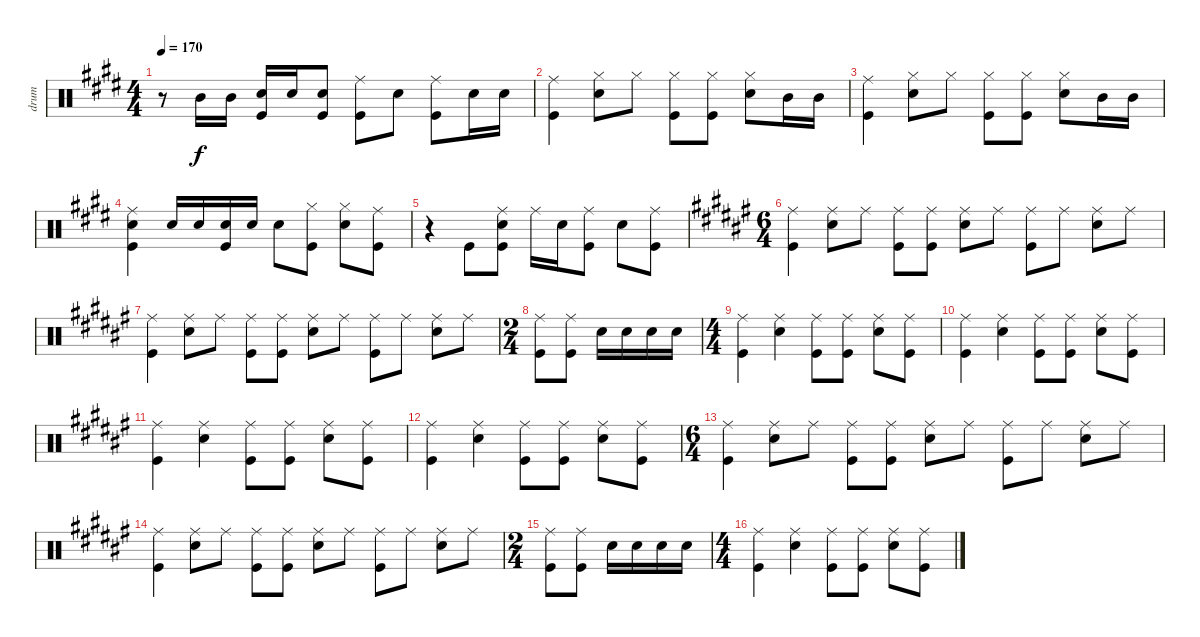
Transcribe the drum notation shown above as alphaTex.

\track ("drum" "drum") {instrument percussion}
\staff {score}
\articulation defaults
\ts (4 4)
\tempo 170
\clef neutral
\ks e
r.8{dy f} "Mid Tom (hit)".16 "Mid Tom (hit)".16 ("Snare (hit) 2" "Kick (hit)").16 "Snare (hit) 2".16 ("Snare (hit) 2" "Kick (hit)").8 ("Ride (middle)" "Kick (hit)").8 "Snare (hit) 2".8 ("Ride (middle)" "Kick (hit)").8 "Snare (hit) 2".16 "Snare (hit) 2".16 |
("Ride (middle)" "Kick (hit)").4 ("Snare (hit) 2" "Hi-Hat (closed)").8 "Hi-Hat (closed)".8 ("Hi-Hat (closed)" "Kick (hit)").8 ("Hi-Hat (closed)" "Kick (hit)").8 ("Hi-Hat (closed)" "Snare (hit) 2").8 "Mid Tom (hit)".16 "Mid Tom (hit)".16 |
("Ride (middle)" "Kick (hit)").4 ("Snare (hit) 2" "Hi-Hat (closed)").8 "Hi-Hat (closed)".8 ("Hi-Hat (closed)" "Kick (hit)").8 ("Hi-Hat (closed)" "Kick (hit)").8 ("Hi-Hat (closed)" "Snare (hit) 2").8 "Mid Tom (hit)".16 "Mid Tom (hit)".16 |
("Ride (middle)" "Snare (hit) 2" "Kick (hit)").4 "Snare (hit) 2".16 "Snare (hit) 2".16 ("Snare (hit) 2" "Kick (hit)").16 "Snare (hit) 2".16 "Snare (hit) 2".8 ("Hi-Hat (closed)" "Kick (hit)").8 ("Hi-Hat (closed)" "Snare (hit) 2").8 ("Ride (middle)" "Kick (hit)").8 |
r.4 "Kick (hit)".8 ("Kick (hit)" "Snare (hit) 2" "Ride (middle)").8 "Ride (middle)".16 "Snare (hit) 2".16 ("Kick (hit)" "Ride (middle)").8 "Snare (hit) 2".8 ("Kick (hit)" "Ride (middle)").8 |
\ts (6 4)
\ks f#
("Kick (hit)" "Ride (middle)").4 ("Snare (hit) 2" "Ride (middle)").8 "Ride (middle)".8 ("Kick (hit)" "Ride (middle)").8 ("Kick (hit)" "Ride (middle)").8 ("Snare (hit) 2" "Ride (middle)").8 "Ride (middle)".8 ("Kick (hit)" "Ride (middle)").8 "Ride (middle)".8 ("Snare (hit) 2" "Ride (middle)").8 "Ride (middle)".8 |
("Kick (hit)" "Ride (middle)").4 ("Snare (hit) 2" "Ride (middle)").8 "Ride (middle)".8 ("Kick (hit)" "Ride (middle)").8 ("Kick (hit)" "Ride (middle)").8 ("Snare (hit) 2" "Ride (middle)").8 "Ride (middle)".8 ("Kick (hit)" "Ride (middle)").8 "Ride (middle)".8 ("Snare (hit) 2" "Ride (middle)").8 "Ride (middle)".8 |
\ts (2 4)
("Kick (hit)" "Ride (middle)").8 ("Kick (hit)" "Ride (middle)").8 "Snare (hit) 2".16 "Snare (hit) 2".16 "Snare (hit) 2".16 "Snare (hit) 2".16 |
\ts (4 4)
("Ride (middle)" "Kick (hit)").4 ("Ride (middle)" "Snare (hit) 2").4 ("Kick (hit)" "Ride (middle)").8 ("Kick (hit)" "Ride (middle)").8 ("Snare (hit) 2" "Ride (middle)").8 ("Kick (hit)" "Ride (middle)").8 |
("Ride (middle)" "Kick (hit)").4 ("Ride (middle)" "Snare (hit) 2").4 ("Kick (hit)" "Ride (middle)").8 ("Kick (hit)" "Ride (middle)").8 ("Snare (hit) 2" "Ride (middle)").8 ("Kick (hit)" "Ride (middle)").8 |
("Ride (middle)" "Kick (hit)").4 ("Ride (middle)" "Snare (hit) 2").4 ("Kick (hit)" "Ride (middle)").8 ("Kick (hit)" "Ride (middle)").8 ("Snare (hit) 2" "Ride (middle)").8 ("Kick (hit)" "Ride (middle)").8 |
("Ride (middle)" "Kick (hit)").4 ("Ride (middle)" "Snare (hit) 2").4 ("Kick (hit)" "Ride (middle)").8 ("Kick (hit)" "Ride (middle)").8 ("Snare (hit) 2" "Ride (middle)").8 ("Kick (hit)" "Ride (middle)").8 |
\ts (6 4)
("Kick (hit)" "Ride (middle)").4 ("Snare (hit) 2" "Ride (middle)").8 "Ride (middle)".8 ("Kick (hit)" "Ride (middle)").8 ("Kick (hit)" "Ride (middle)").8 ("Snare (hit) 2" "Ride (middle)").8 "Ride (middle)".8 ("Kick (hit)" "Ride (middle)").8 "Ride (middle)".8 ("Snare (hit) 2" "Ride (middle)").8 "Ride (middle)".8 |
("Kick (hit)" "Ride (middle)").4 ("Snare (hit) 2" "Ride (middle)").8 "Ride (middle)".8 ("Kick (hit)" "Ride (middle)").8 ("Kick (hit)" "Ride (middle)").8 ("Snare (hit) 2" "Ride (middle)").8 "Ride (middle)".8 ("Kick (hit)" "Ride (middle)").8 "Ride (middle)".8 ("Snare (hit) 2" "Ride (middle)").8 "Ride (middle)".8 |
\ts (2 4)
("Kick (hit)" "Ride (middle)").8 ("Kick (hit)" "Ride (middle)").8 "Snare (hit) 2".16 "Snare (hit) 2".16 "Snare (hit) 2".16 "Snare (hit) 2".16 |
\ts (4 4)
("Ride (middle)" "Kick (hit)").4 ("Ride (middle)" "Snare (hit) 2").4 ("Kick (hit)" "Ride (middle)").8 ("Kick (hit)" "Ride (middle)").8 ("Snare (hit) 2" "Ride (middle)").8 ("Kick (hit)" "Ride (middle)").8
